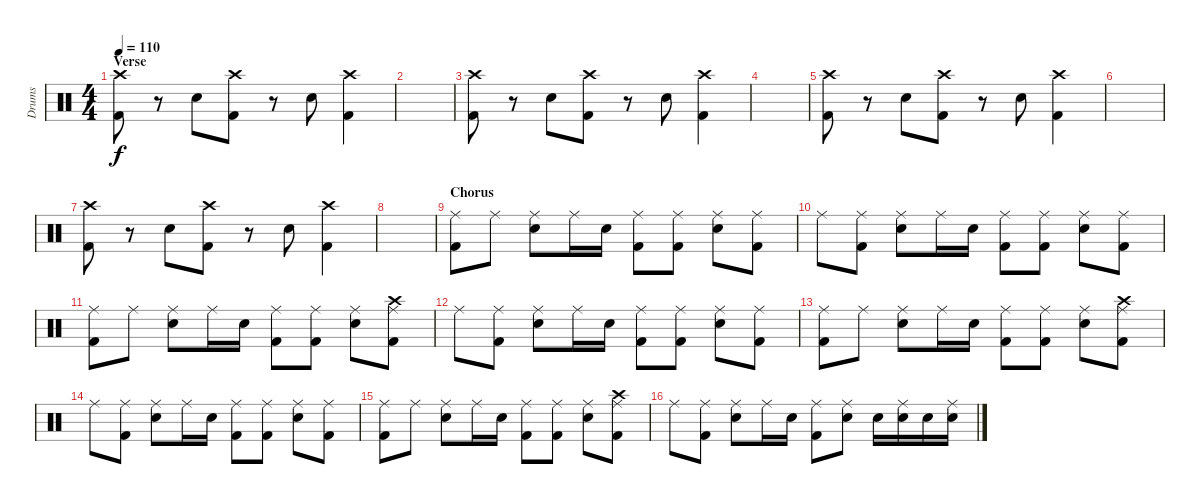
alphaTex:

\track ("Drums" "Drums") {instrument percussion}
\staff {score}
\articulation defaults
\ts (4 4)
\section ("" "Verse")
\tempo 110
\clef neutral
\ks c
("Crash high (hit)" "Kick (hit) 2").8{dy f} r.8 "Snare (hit) 2".8 ("Crash high (hit)" "Kick (hit) 2").8 r.8 "Snare (hit) 2".8 ("Crash high (hit)" "Kick (hit) 2").4 |
|
("Crash high (hit)" "Kick (hit) 2").8 r.8 "Snare (hit) 2".8 ("Crash high (hit)" "Kick (hit) 2").8 r.8 "Snare (hit) 2".8 ("Crash high (hit)" "Kick (hit) 2").4 |
|
("Crash high (hit)" "Kick (hit) 2").8 r.8 "Snare (hit) 2".8 ("Crash high (hit)" "Kick (hit) 2").8 r.8 "Snare (hit) 2".8 ("Crash high (hit)" "Kick (hit) 2").4 |
|
("Crash high (hit)" "Kick (hit) 2").8 r.8 "Snare (hit) 2".8 ("Crash high (hit)" "Kick (hit) 2").8 r.8 "Snare (hit) 2".8 ("Crash high (hit)" "Kick (hit) 2").4 |
|
\section ("" "Chorus")
("Ride (middle)" "Kick (hit) 2").8 "Ride (middle)".8 ("Snare (hit) 2" "Ride (middle)").8 "Ride (middle)".16 "Snare (hit) 2".16 ("Kick (hit) 2" "Ride (middle)").8 ("Kick (hit) 2" "Ride (middle)").8 ("Snare (hit) 2" "Ride (middle)").8 ("Kick (hit) 2" "Ride (middle)").8 |
"Ride (middle)".8 ("Kick (hit) 2" "Ride (middle)").8 ("Snare (hit) 2" "Ride (middle)").8 "Ride (middle)".16 "Snare (hit) 2".16 ("Kick (hit) 2" "Ride (middle)").8 ("Kick (hit) 2" "Ride (middle)").8 ("Snare (hit) 2" "Ride (middle)").8 ("Kick (hit) 2" "Ride (middle)").8 |
("Ride (middle)" "Kick (hit) 2").8 "Ride (middle)".8 ("Snare (hit) 2" "Ride (middle)").8 "Ride (middle)".16 "Snare (hit) 2".16 ("Kick (hit) 2" "Ride (middle)").8 ("Kick (hit) 2" "Ride (middle)").8 ("Snare (hit) 2" "Ride (middle)").8 ("Crash high (hit)" "Kick (hit) 2" "Ride (middle)").8 |
"Ride (middle)".8 ("Kick (hit) 2" "Ride (middle)").8 ("Snare (hit) 2" "Ride (middle)").8 "Ride (middle)".16 "Snare (hit) 2".16 ("Kick (hit) 2" "Ride (middle)").8 ("Kick (hit) 2" "Ride (middle)").8 ("Snare (hit) 2" "Ride (middle)").8 ("Kick (hit) 2" "Ride (middle)").8 |
("Ride (middle)" "Kick (hit) 2").8 "Ride (middle)".8 ("Snare (hit) 2" "Ride (middle)").8 "Ride (middle)".16 "Snare (hit) 2".16 ("Kick (hit) 2" "Ride (middle)").8 ("Kick (hit) 2" "Ride (middle)").8 ("Snare (hit) 2" "Ride (middle)").8 ("Crash high (hit)" "Kick (hit) 2" "Ride (middle)").8 |
"Ride (middle)".8 ("Kick (hit) 2" "Ride (middle)").8 ("Snare (hit) 2" "Ride (middle)").8 "Ride (middle)".16 "Snare (hit) 2".16 ("Kick (hit) 2" "Ride (middle)").8 ("Kick (hit) 2" "Ride (middle)").8 ("Snare (hit) 2" "Ride (middle)").8 ("Kick (hit) 2" "Ride (middle)").8 |
("Ride (middle)" "Kick (hit) 2").8 "Ride (middle)".8 ("Snare (hit) 2" "Ride (middle)").8 "Ride (middle)".16 "Snare (hit) 2".16 ("Kick (hit) 2" "Ride (middle)").8 ("Kick (hit) 2" "Ride (middle)").8 ("Snare (hit) 2" "Ride (middle)").8 ("Crash high (hit)" "Kick (hit) 2" "Ride (middle)").8 |
"Ride (middle)".8 ("Kick (hit) 2" "Ride (middle)").8 ("Snare (hit) 2" "Ride (middle)").8 "Ride (middle)".16 "Snare (hit) 2".16 ("Kick (hit) 2" "Ride (middle)").8 ("Snare (hit) 2" "Ride (middle)").8 "Snare (hit) 2".16 ("Snare (hit) 2" "Ride (middle)").16 "Snare (hit) 2".16 ("Snare (hit) 2" "Ride (middle)").16
